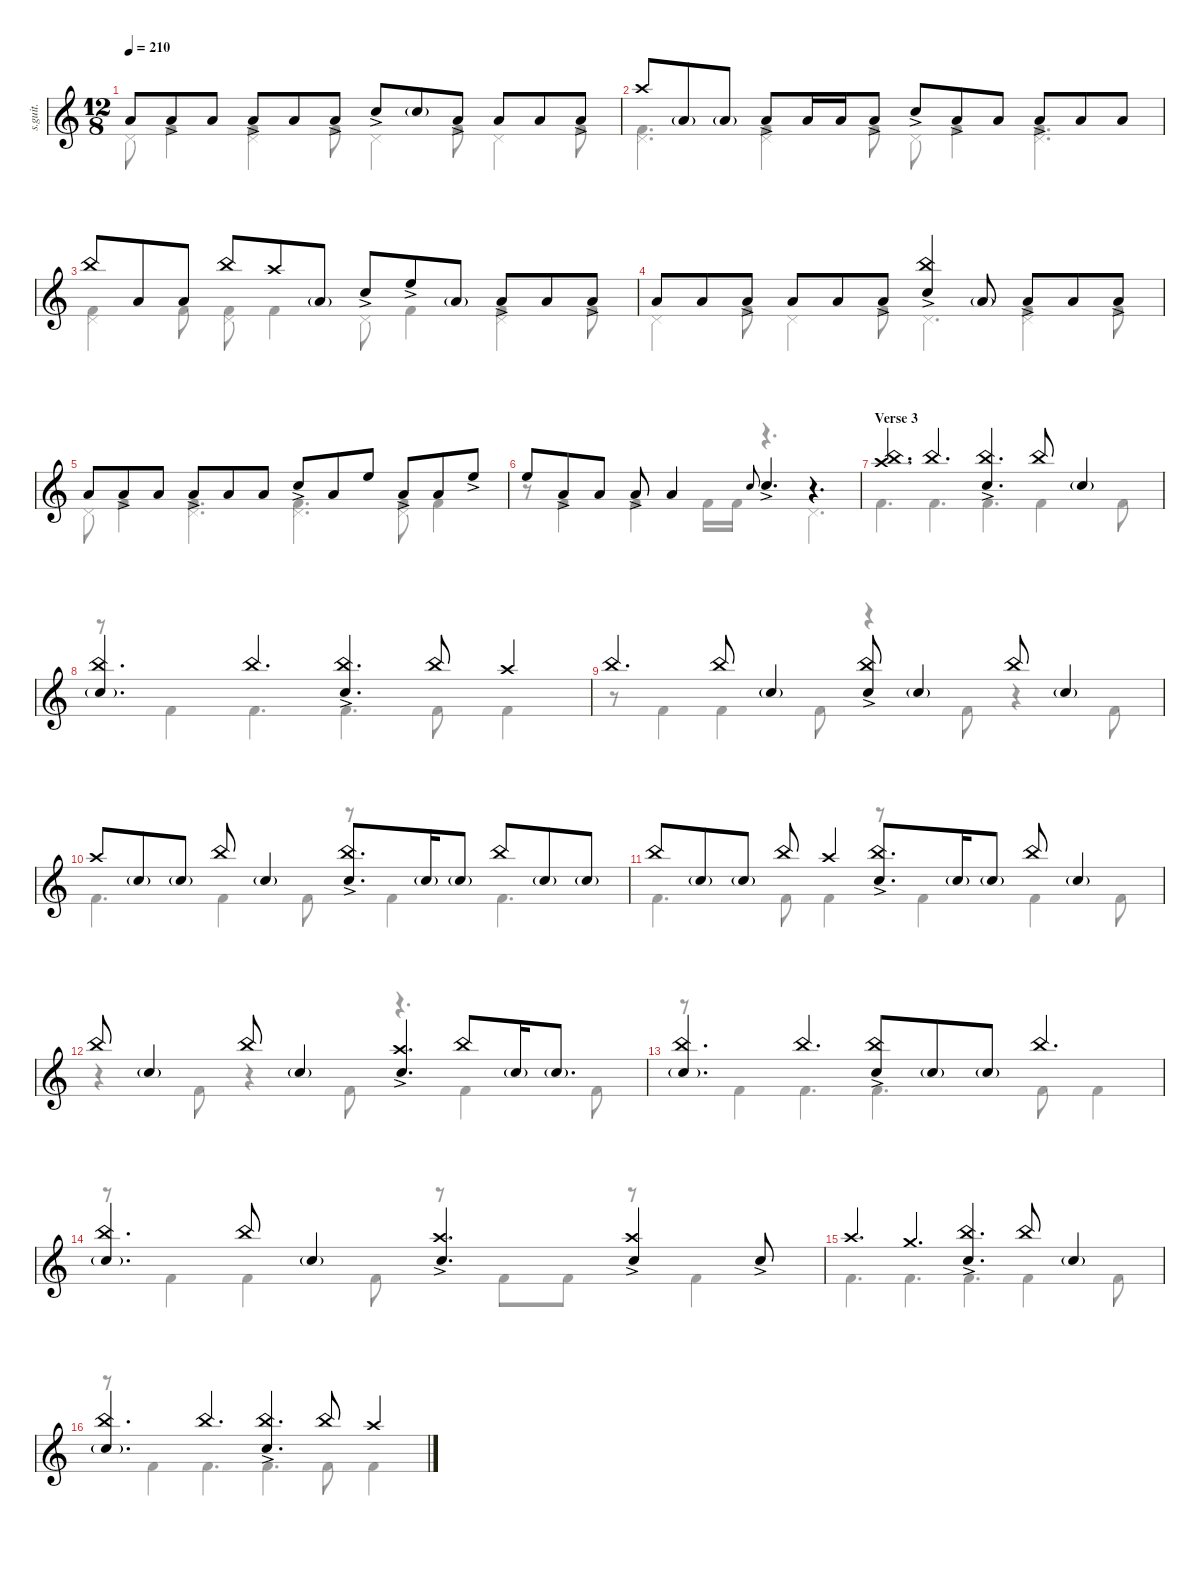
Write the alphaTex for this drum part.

\defaultSystemsLayout 4
\hideDynamics
\bracketExtendMode nobrackets
\track ("Percussion" "s.guit.") {instrument percussion}
\staff {score}
\articulation defaults
\voice
\ts (12 8)
\tempo 210
\clef g2
\ks c "Low Tom (hit)".8{lyrics (0 "") lyrics (1 "") lyrics (2 "") lyrics (3 "") lyrics (4 "") dy f} "Low Tom (hit)"{ac}.8{lyrics (0 "") lyrics (1 "") lyrics (2 "") lyrics (3 "") lyrics (4 "") dy mf} "Low Tom (hit)".8{lyrics (0 "") lyrics (1 "") lyrics (2 "") lyrics (3 "") lyrics (4 "") dy f} "Low Tom (hit)"{ac}.8{lyrics (0 "") lyrics (1 "") lyrics (2 "") lyrics (3 "") lyrics (4 "") dy mf} "Low Tom (hit)".8{lyrics (0 "") lyrics (1 "") lyrics (2 "") lyrics (3 "") lyrics (4 "") dy f} "Low Tom (hit)"{ac}.8{lyrics (0 "") lyrics (1 "") lyrics (2 "") lyrics (3 "") lyrics (4 "") dy mf} "Snare (hit) 2"{ac}.8{lyrics (0 "") lyrics (1 "") lyrics (2 "") lyrics (3 "") lyrics (4 "")} "Snare (hit) 2"{g}.8{lyrics (0 "") lyrics (1 "") lyrics (2 "") lyrics (3 "") lyrics (4 "") dy ff} "Low Tom (hit)"{ac}.8{lyrics (0 "") lyrics (1 "") lyrics (2 "") lyrics (3 "") lyrics (4 "") dy mf} "Low Tom (hit)".8{lyrics (0 "") lyrics (1 "") lyrics (2 "") lyrics (3 "") lyrics (4 "") dy f} "Low Tom (hit)".8{lyrics (0 "") lyrics (1 "") lyrics (2 "") lyrics (3 "") lyrics (4 "")} "Low Tom (hit)"{ac}.8{lyrics (0 "") lyrics (1 "") lyrics (2 "") lyrics (3 "") lyrics (4 "") dy mf}
|
"Crash high (hit)".8{lyrics (0 "") lyrics (1 "") lyrics (2 "") lyrics (3 "") lyrics (4 "") dy f} "Low Tom (hit)"{g}.8{lyrics (0 "") lyrics (1 "") lyrics (2 "") lyrics (3 "") lyrics (4 "") dy ff} "Low Tom (hit)"{g}.8{lyrics (0 "") lyrics (1 "") lyrics (2 "") lyrics (3 "") lyrics (4 "")} "Low Tom (hit)"{ac}.8{lyrics (0 "") lyrics (1 "") lyrics (2 "") lyrics (3 "") lyrics (4 "") dy mf} "Low Tom (hit)".16{lyrics (0 "") lyrics (1 "") lyrics (2 "") lyrics (3 "") lyrics (4 "") dy f} "Low Tom (hit)".16{lyrics (0 "") lyrics (1 "") lyrics (2 "") lyrics (3 "") lyrics (4 "")} "Low Tom (hit)"{ac}.8{lyrics (0 "") lyrics (1 "") lyrics (2 "") lyrics (3 "") lyrics (4 "") dy mf} "Snare (hit) 2"{ac}.8{lyrics (0 "") lyrics (1 "") lyrics (2 "") lyrics (3 "") lyrics (4 "")} "Low Tom (hit)"{ac}.8{lyrics (0 "") lyrics (1 "") lyrics (2 "") lyrics (3 "") lyrics (4 "")} "Low Tom (hit)".8{lyrics (0 "") lyrics (1 "") lyrics (2 "") lyrics (3 "") lyrics (4 "") dy f} "Low Tom (hit)"{ac}.8{lyrics (0 "") lyrics (1 "") lyrics (2 "") lyrics (3 "") lyrics (4 "") dy mf} "Low Tom (hit)".8{lyrics (0 "") lyrics (1 "") lyrics (2 "") lyrics (3 "") lyrics (4 "") dy f} "Low Tom (hit)".8{lyrics (0 "") lyrics (1 "") lyrics (2 "") lyrics (3 "") lyrics (4 "")} |
"China (hit)".8{lyrics (0 "") lyrics (1 "") lyrics (2 "") lyrics (3 "") lyrics (4 "")} "Low Tom (hit)".8{lyrics (0 "") lyrics (1 "") lyrics (2 "") lyrics (3 "") lyrics (4 "")} "Low Tom (hit)".8{lyrics (0 "") lyrics (1 "") lyrics (2 "") lyrics (3 "") lyrics (4 "")} "China (hit)".8{lyrics (0 "") lyrics (1 "") lyrics (2 "") lyrics (3 "") lyrics (4 "")} "Crash high (hit)".8{lyrics (0 "") lyrics (1 "") lyrics (2 "") lyrics (3 "") lyrics (4 "")} "Low Tom (hit)"{g}.8{lyrics (0 "") lyrics (1 "") lyrics (2 "") lyrics (3 "") lyrics (4 "") dy ff} "Snare (hit) 2"{ac}.8{lyrics (0 "") lyrics (1 "") lyrics (2 "") lyrics (3 "") lyrics (4 "") dy mf} "High Floor Tom (hit)"{ac}.8{lyrics (0 "") lyrics (1 "") lyrics (2 "") lyrics (3 "") lyrics (4 "")} "Low Tom (hit)"{g}.8{lyrics (0 "") lyrics (1 "") lyrics (2 "") lyrics (3 "") lyrics (4 "") dy ff} "Low Tom (hit)"{ac}.8{lyrics (0 "") lyrics (1 "") lyrics (2 "") lyrics (3 "") lyrics (4 "") dy mf} "Low Tom (hit)".8{lyrics (0 "") lyrics (1 "") lyrics (2 "") lyrics (3 "") lyrics (4 "") dy f} "Low Tom (hit)"{ac}.8{lyrics (0 "") lyrics (1 "") lyrics (2 "") lyrics (3 "") lyrics (4 "") dy mf} |
"Low Tom (hit)".8{lyrics (0 "") lyrics (1 "") lyrics (2 "") lyrics (3 "") lyrics (4 "") dy f} "Low Tom (hit)".8{lyrics (0 "") lyrics (1 "") lyrics (2 "") lyrics (3 "") lyrics (4 "")} "Low Tom (hit)"{ac}.8{lyrics (0 "") lyrics (1 "") lyrics (2 "") lyrics (3 "") lyrics (4 "") dy mf} "Low Tom (hit)".8{lyrics (0 "") lyrics (1 "") lyrics (2 "") lyrics (3 "") lyrics (4 "") dy f} "Low Tom (hit)".8{lyrics (0 "") lyrics (1 "") lyrics (2 "") lyrics (3 "") lyrics (4 "")} "Low Tom (hit)"{ac}.8{lyrics (0 "") lyrics (1 "") lyrics (2 "") lyrics (3 "") lyrics (4 "") dy mf} ("China (hit)" "Snare (hit) 2"{ac}).4{lyrics (0 "") lyrics (1 "") lyrics (2 "") lyrics (3 "") lyrics (4 "") dy f} "Low Tom (hit)"{g}.8{lyrics (0 "") lyrics (1 "") lyrics (2 "") lyrics (3 "") lyrics (4 "") dy ff} "Low Tom (hit)"{ac}.8{lyrics (0 "") lyrics (1 "") lyrics (2 "") lyrics (3 "") lyrics (4 "") dy mf} "Low Tom (hit)".8{lyrics (0 "") lyrics (1 "") lyrics (2 "") lyrics (3 "") lyrics (4 "") dy f} "Low Tom (hit)"{ac}.8{lyrics (0 "") lyrics (1 "") lyrics (2 "") lyrics (3 "") lyrics (4 "") dy mf} |
"Low Tom (hit)".8{lyrics (0 "") lyrics (1 "") lyrics (2 "") lyrics (3 "") lyrics (4 "") dy f} "Low Tom (hit)"{ac}.8{lyrics (0 "") lyrics (1 "") lyrics (2 "") lyrics (3 "") lyrics (4 "") dy mf} "Low Tom (hit)".8{lyrics (0 "") lyrics (1 "") lyrics (2 "") lyrics (3 "") lyrics (4 "") dy f} "Low Tom (hit)"{ac}.8{lyrics (0 "") lyrics (1 "") lyrics (2 "") lyrics (3 "") lyrics (4 "") dy mf} "Low Tom (hit)".8{lyrics (0 "") lyrics (1 "") lyrics (2 "") lyrics (3 "") lyrics (4 "") dy f} "Low Tom (hit)".8{lyrics (0 "") lyrics (1 "") lyrics (2 "") lyrics (3 "") lyrics (4 "")} "Snare (hit) 2"{ac}.8{lyrics (0 "") lyrics (1 "") lyrics (2 "") lyrics (3 "") lyrics (4 "") dy mf} "Low Tom (hit)".8{lyrics (0 "") lyrics (1 "") lyrics (2 "") lyrics (3 "") lyrics (4 "") dy f} "High Floor Tom (hit)".8{lyrics (0 "") lyrics (1 "") lyrics (2 "") lyrics (3 "") lyrics (4 "")} "Low Tom (hit)"{ac}.8{lyrics (0 "") lyrics (1 "") lyrics (2 "") lyrics (3 "") lyrics (4 "") dy mf} "Low Tom (hit)".8{lyrics (0 "") lyrics (1 "") lyrics (2 "") lyrics (3 "") lyrics (4 "") dy f} "High Floor Tom (hit)"{ac}.8{lyrics (0 "") lyrics (1 "") lyrics (2 "") lyrics (3 "") lyrics (4 "") dy mf} |
"High Floor Tom (hit)".8{lyrics (0 "") lyrics (1 "") lyrics (2 "") lyrics (3 "") lyrics (4 "") dy f} "Low Tom (hit)"{ac}.8{lyrics (0 "") lyrics (1 "") lyrics (2 "") lyrics (3 "") lyrics (4 "") dy mf} "Low Tom (hit)".8{lyrics (0 "") lyrics (1 "") lyrics (2 "") lyrics (3 "") lyrics (4 "") dy f} "Low Tom (hit)"{ac}.8{lyrics (0 "") lyrics (1 "") lyrics (2 "") lyrics (3 "") lyrics (4 "") dy mf} "Low Tom (hit)".4{lyrics (0 "") lyrics (1 "") lyrics (2 "") lyrics (3 "") lyrics (4 "") dy f} "Snare (hit) 2".8{lyrics (0 "") lyrics (1 "") lyrics (2 "") lyrics (3 "") lyrics (4 "") gr onbeat dy mf} "Snare (hit) 2"{ac}.4{d lyrics (0 "") lyrics (1 "") lyrics (2 "") lyrics (3 "") lyrics (4 "")} r.4{d} |
\section ("" "Verse 3")
("China (hit)" "Crash high (hit)").4{d lyrics (0 "") lyrics (1 "") lyrics (2 "") lyrics (3 "") lyrics (4 "") dy f} "China (hit)".4{d lyrics (0 "") lyrics (1 "") lyrics (2 "") lyrics (3 "") lyrics (4 "")} ("China (hit)" "Snare (hit) 2"{ac}).4{d lyrics (0 "") lyrics (1 "") lyrics (2 "") lyrics (3 "") lyrics (4 "")} "China (hit)".8{lyrics (0 "") lyrics (1 "") lyrics (2 "") lyrics (3 "") lyrics (4 "")} "Snare (hit) 2"{g}.4{lyrics (0 "") lyrics (1 "") lyrics (2 "") lyrics (3 "") lyrics (4 "") dy ff} |
("China (hit)" "Snare (hit) 2"{g}).4{d lyrics (0 "") lyrics (1 "") lyrics (2 "") lyrics (3 "") lyrics (4 "") dy f} "China (hit)".4{d lyrics (0 "") lyrics (1 "") lyrics (2 "") lyrics (3 "") lyrics (4 "")} ("China (hit)" "Snare (hit) 2"{ac}).4{d lyrics (0 "") lyrics (1 "") lyrics (2 "") lyrics (3 "") lyrics (4 "")} "China (hit)".8{lyrics (0 "") lyrics (1 "") lyrics (2 "") lyrics (3 "") lyrics (4 "")} "Crash high (hit)".4{lyrics (0 "") lyrics (1 "") lyrics (2 "") lyrics (3 "") lyrics (4 "")} |
"China (hit)".4{d lyrics (0 "") lyrics (1 "") lyrics (2 "") lyrics (3 "") lyrics (4 "")} "China (hit)".8{lyrics (0 "") lyrics (1 "") lyrics (2 "") lyrics (3 "") lyrics (4 "")} "Snare (hit) 2"{g}.4{lyrics (0 "") lyrics (1 "") lyrics (2 "") lyrics (3 "") lyrics (4 "") dy ff} ("Snare (hit) 2"{ac} "China (hit)").8{lyrics (0 "") lyrics (1 "") lyrics (2 "") lyrics (3 "") lyrics (4 "") dy f} "Snare (hit) 2"{g}.4{lyrics (0 "") lyrics (1 "") lyrics (2 "") lyrics (3 "") lyrics (4 "") dy ff} "China (hit)".8{lyrics (0 "") lyrics (1 "") lyrics (2 "") lyrics (3 "") lyrics (4 "") dy f} "Snare (hit) 2"{g}.4{lyrics (0 "") lyrics (1 "") lyrics (2 "") lyrics (3 "") lyrics (4 "") dy ff} |
"Crash high (hit)".8{lyrics (0 "") lyrics (1 "") lyrics (2 "") lyrics (3 "") lyrics (4 "") dy f} "Snare (hit) 2"{g}.8{lyrics (0 "") lyrics (1 "") lyrics (2 "") lyrics (3 "") lyrics (4 "") dy ff} "Snare (hit) 2"{g}.8{lyrics (0 "") lyrics (1 "") lyrics (2 "") lyrics (3 "") lyrics (4 "")} "China (hit)".8{lyrics (0 "") lyrics (1 "") lyrics (2 "") lyrics (3 "") lyrics (4 "") dy f} "Snare (hit) 2"{g}.4{lyrics (0 "") lyrics (1 "") lyrics (2 "") lyrics (3 "") lyrics (4 "") dy ff} ("China (hit)" "Snare (hit) 2"{ac}).8{d lyrics (0 "") lyrics (1 "") lyrics (2 "") lyrics (3 "") lyrics (4 "") dy f} "Snare (hit) 2"{g}.16{lyrics (0 "") lyrics (1 "") lyrics (2 "") lyrics (3 "") lyrics (4 "") dy ff} "Snare (hit) 2"{g}.8{lyrics (0 "") lyrics (1 "") lyrics (2 "") lyrics (3 "") lyrics (4 "")} "China (hit)".8{lyrics (0 "") lyrics (1 "") lyrics (2 "") lyrics (3 "") lyrics (4 "") dy f} "Snare (hit) 2"{g}.8{lyrics (0 "") lyrics (1 "") lyrics (2 "") lyrics (3 "") lyrics (4 "") dy ff} "Snare (hit) 2"{g}.8{lyrics (0 "") lyrics (1 "") lyrics (2 "") lyrics (3 "") lyrics (4 "")} |
"China (hit)".8{lyrics (0 "") lyrics (1 "") lyrics (2 "") lyrics (3 "") lyrics (4 "") dy f} "Snare (hit) 2"{g}.8{lyrics (0 "") lyrics (1 "") lyrics (2 "") lyrics (3 "") lyrics (4 "") dy ff} "Snare (hit) 2"{g}.8{lyrics (0 "") lyrics (1 "") lyrics (2 "") lyrics (3 "") lyrics (4 "")} "China (hit)".8{lyrics (0 "") lyrics (1 "") lyrics (2 "") lyrics (3 "") lyrics (4 "") dy f} "Crash high (hit)".4{lyrics (0 "") lyrics (1 "") lyrics (2 "") lyrics (3 "") lyrics (4 "")} ("China (hit)" "Snare (hit) 2"{ac}).8{d lyrics (0 "") lyrics (1 "") lyrics (2 "") lyrics (3 "") lyrics (4 "")} "Snare (hit) 2"{g}.16{lyrics (0 "") lyrics (1 "") lyrics (2 "") lyrics (3 "") lyrics (4 "") dy ff} "Snare (hit) 2"{g}.8{lyrics (0 "") lyrics (1 "") lyrics (2 "") lyrics (3 "") lyrics (4 "")} "China (hit)".8{lyrics (0 "") lyrics (1 "") lyrics (2 "") lyrics (3 "") lyrics (4 "") dy f} "Snare (hit) 2"{g}.4{lyrics (0 "") lyrics (1 "") lyrics (2 "") lyrics (3 "") lyrics (4 "") dy ff} |
"China (hit)".8{lyrics (0 "") lyrics (1 "") lyrics (2 "") lyrics (3 "") lyrics (4 "") dy f} "Snare (hit) 2"{g}.4{lyrics (0 "") lyrics (1 "") lyrics (2 "") lyrics (3 "") lyrics (4 "") dy ff} "China (hit)".8{lyrics (0 "") lyrics (1 "") lyrics (2 "") lyrics (3 "") lyrics (4 "") dy f} "Snare (hit) 2"{g}.4{lyrics (0 "") lyrics (1 "") lyrics (2 "") lyrics (3 "") lyrics (4 "") dy ff} ("Snare (hit) 2"{ac} "Crash high (hit)").4{d lyrics (0 "") lyrics (1 "") lyrics (2 "") lyrics (3 "") lyrics (4 "") dy f} "China (hit)".8{lyrics (0 "") lyrics (1 "") lyrics (2 "") lyrics (3 "") lyrics (4 "")} "Snare (hit) 2"{g}.16{lyrics (0 "") lyrics (1 "") lyrics (2 "") lyrics (3 "") lyrics (4 "") dy ff} "Snare (hit) 2"{g}.8{d lyrics (0 "") lyrics (1 "") lyrics (2 "") lyrics (3 "") lyrics (4 "")} |
("Snare (hit) 2"{g} "China (hit)").4{d lyrics (0 "") lyrics (1 "") lyrics (2 "") lyrics (3 "") lyrics (4 "") dy f} "China (hit)".4{d lyrics (0 "") lyrics (1 "") lyrics (2 "") lyrics (3 "") lyrics (4 "")} ("Snare (hit) 2"{ac} "China (hit)").8{lyrics (0 "") lyrics (1 "") lyrics (2 "") lyrics (3 "") lyrics (4 "")} "Snare (hit) 2"{g}.8{lyrics (0 "") lyrics (1 "") lyrics (2 "") lyrics (3 "") lyrics (4 "") dy ff} "Snare (hit) 2"{g}.8{lyrics (0 "") lyrics (1 "") lyrics (2 "") lyrics (3 "") lyrics (4 "")} "China (hit)".4{d lyrics (0 "") lyrics (1 "") lyrics (2 "") lyrics (3 "") lyrics (4 "") dy f} |
("Snare (hit) 2"{g} "China (hit)").4{d lyrics (0 "") lyrics (1 "") lyrics (2 "") lyrics (3 "") lyrics (4 "")} "China (hit)".8{lyrics (0 "") lyrics (1 "") lyrics (2 "") lyrics (3 "") lyrics (4 "")} "Snare (hit) 2"{g}.4{lyrics (0 "") lyrics (1 "") lyrics (2 "") lyrics (3 "") lyrics (4 "") dy ff} ("Snare (hit) 2"{ac} "Crash high (hit)").4{d lyrics (0 "") lyrics (1 "") lyrics (2 "") lyrics (3 "") lyrics (4 "") dy f} ("Snare (hit) 2"{ac} "Crash high (hit)").4{lyrics (0 "") lyrics (1 "") lyrics (2 "") lyrics (3 "") lyrics (4 "")} "Snare (hit) 2"{ac}.8{lyrics (0 "") lyrics (1 "") lyrics (2 "") lyrics (3 "") lyrics (4 "") dy mf} |
"Crash high (hit)".4{d lyrics (0 "") lyrics (1 "") lyrics (2 "") lyrics (3 "") lyrics (4 "") dy f} "Crash medium (hit)".4{d lyrics (0 "") lyrics (1 "") lyrics (2 "") lyrics (3 "") lyrics (4 "")} ("China (hit)" "Snare (hit) 2"{ac}).4{d lyrics (0 "") lyrics (1 "") lyrics (2 "") lyrics (3 "") lyrics (4 "")} "China (hit)".8{lyrics (0 "") lyrics (1 "") lyrics (2 "") lyrics (3 "") lyrics (4 "")} "Snare (hit) 2"{g}.4{lyrics (0 "") lyrics (1 "") lyrics (2 "") lyrics (3 "") lyrics (4 "") dy ff} |
("China (hit)" "Snare (hit) 2"{g}).4{d lyrics (0 "") lyrics (1 "") lyrics (2 "") lyrics (3 "") lyrics (4 "") dy f} "China (hit)".4{d lyrics (0 "") lyrics (1 "") lyrics (2 "") lyrics (3 "") lyrics (4 "")} ("China (hit)" "Snare (hit) 2"{ac}).4{d lyrics (0 "") lyrics (1 "") lyrics (2 "") lyrics (3 "") lyrics (4 "")} "China (hit)".8{lyrics (0 "") lyrics (1 "") lyrics (2 "") lyrics (3 "") lyrics (4 "")} "Crash high (hit)".4{lyrics (0 "") lyrics (1 "") lyrics (2 "") lyrics (3 "") lyrics (4 "")}
\voice
\clef g2
\ottava regular
\simile none
\ks c "Pedal Hi-Hat (hit)".8{lyrics (0 "") lyrics (1 "") lyrics (2 "") lyrics (3 "") lyrics (4 "") dy f} "Kick (hit) 2".4{lyrics (0 "") lyrics (1 "") lyrics (2 "") lyrics (3 "") lyrics (4 "")}
("Kick (hit) 2" "Pedal Hi-Hat (hit)").4{lyrics (0 "") lyrics (1 "") lyrics (2 "") lyrics (3 "") lyrics (4 "")} "Kick (hit) 2".8{lyrics (0 "") lyrics (1 "") lyrics (2 "") lyrics (3 "") lyrics (4 "")} "Pedal Hi-Hat (hit)".4{lyrics (0 "") lyrics (1 "") lyrics (2 "") lyrics (3 "") lyrics (4 "")} "Kick (hit) 2".8{lyrics (0 "") lyrics (1 "") lyrics (2 "") lyrics (3 "") lyrics (4 "")} "Pedal Hi-Hat (hit)".4{lyrics (0 "") lyrics (1 "") lyrics (2 "") lyrics (3 "") lyrics (4 "")} "Kick (hit) 2".8{lyrics (0 "") lyrics (1 "") lyrics (2 "") lyrics (3 "") lyrics (4 "")} |
("Kick (hit) 2" "Pedal Hi-Hat (hit)").4{d lyrics (0 "") lyrics (1 "") lyrics (2 "") lyrics (3 "") lyrics (4 "")} ("Kick (hit) 2" "Pedal Hi-Hat (hit)").4{lyrics (0 "") lyrics (1 "") lyrics (2 "") lyrics (3 "") lyrics (4 "")} "Kick (hit) 2".8{lyrics (0 "") lyrics (1 "") lyrics (2 "") lyrics (3 "") lyrics (4 "")} "Pedal Hi-Hat (hit)".8{lyrics (0 "") lyrics (1 "") lyrics (2 "") lyrics (3 "") lyrics (4 "")} "Kick (hit) 2".4{lyrics (0 "") lyrics (1 "") lyrics (2 "") lyrics (3 "") lyrics (4 "")} ("Kick (hit) 2" "Pedal Hi-Hat (hit)").4{d lyrics (0 "") lyrics (1 "") lyrics (2 "") lyrics (3 "") lyrics (4 "")} |
("Kick (hit) 2" "Pedal Hi-Hat (hit)").4{lyrics (0 "") lyrics (1 "") lyrics (2 "") lyrics (3 "") lyrics (4 "")} "Kick (hit) 2".8{lyrics (0 "") lyrics (1 "") lyrics (2 "") lyrics (3 "") lyrics (4 "")} ("Kick (hit) 2" "Pedal Hi-Hat (hit)").8{lyrics (0 "") lyrics (1 "") lyrics (2 "") lyrics (3 "") lyrics (4 "")} "Kick (hit) 2".4{lyrics (0 "") lyrics (1 "") lyrics (2 "") lyrics (3 "") lyrics (4 "")} "Pedal Hi-Hat (hit)".8{lyrics (0 "") lyrics (1 "") lyrics (2 "") lyrics (3 "") lyrics (4 "")} "Kick (hit) 2".4{lyrics (0 "") lyrics (1 "") lyrics (2 "") lyrics (3 "") lyrics (4 "")} ("Kick (hit) 2" "Pedal Hi-Hat (hit)").4{lyrics (0 "") lyrics (1 "") lyrics (2 "") lyrics (3 "") lyrics (4 "")} "Kick (hit) 2".8{lyrics (0 "") lyrics (1 "") lyrics (2 "") lyrics (3 "") lyrics (4 "")} |
"Pedal Hi-Hat (hit)".4{lyrics (0 "") lyrics (1 "") lyrics (2 "") lyrics (3 "") lyrics (4 "")} "Kick (hit) 2".8{lyrics (0 "") lyrics (1 "") lyrics (2 "") lyrics (3 "") lyrics (4 "")} "Pedal Hi-Hat (hit)".4{lyrics (0 "") lyrics (1 "") lyrics (2 "") lyrics (3 "") lyrics (4 "")} "Kick (hit) 2".8{lyrics (0 "") lyrics (1 "") lyrics (2 "") lyrics (3 "") lyrics (4 "")} "Pedal Hi-Hat (hit)".4{d lyrics (0 "") lyrics (1 "") lyrics (2 "") lyrics (3 "") lyrics (4 "")} ("Kick (hit) 2" "Pedal Hi-Hat (hit)").4{lyrics (0 "") lyrics (1 "") lyrics (2 "") lyrics (3 "") lyrics (4 "")} "Kick (hit) 2".8{lyrics (0 "") lyrics (1 "") lyrics (2 "") lyrics (3 "") lyrics (4 "")} |
"Pedal Hi-Hat (hit)".8{lyrics (0 "") lyrics (1 "") lyrics (2 "") lyrics (3 "") lyrics (4 "")} "Kick (hit) 2".4{lyrics (0 "") lyrics (1 "") lyrics (2 "") lyrics (3 "") lyrics (4 "")} ("Kick (hit) 2" "Pedal Hi-Hat (hit)").4{d lyrics (0 "") lyrics (1 "") lyrics (2 "") lyrics (3 "") lyrics (4 "")} ("Pedal Hi-Hat (hit)" "Kick (hit) 2").4{d lyrics (0 "") lyrics (1 "") lyrics (2 "") lyrics (3 "") lyrics (4 "")} ("Pedal Hi-Hat (hit)" "Kick (hit) 2").8{lyrics (0 "") lyrics (1 "") lyrics (2 "") lyrics (3 "") lyrics (4 "")} "Kick (hit) 2".4{lyrics (0 "") lyrics (1 "") lyrics (2 "") lyrics (3 "") lyrics (4 "")} |
r.8 "Kick (hit) 2".4{lyrics (0 "") lyrics (1 "") lyrics (2 "") lyrics (3 "") lyrics (4 "")} "Kick (hit) 2".4{lyrics (0 "") lyrics (1 "") lyrics (2 "") lyrics (3 "") lyrics (4 "")} "Kick (hit) 2".16{lyrics (0 "") lyrics (1 "") lyrics (2 "") lyrics (3 "") lyrics (4 "")} "Kick (hit) 2".16{lyrics (0 "") lyrics (1 "") lyrics (2 "") lyrics (3 "") lyrics (4 "")} r.4{d} "Pedal Hi-Hat (hit)".4{d lyrics (0 "") lyrics (1 "") lyrics (2 "") lyrics (3 "") lyrics (4 "")} |
"Kick (hit) 2".4{d lyrics (0 "") lyrics (1 "") lyrics (2 "") lyrics (3 "") lyrics (4 "")} "Kick (hit) 2".4{d lyrics (0 "") lyrics (1 "") lyrics (2 "") lyrics (3 "") lyrics (4 "")} "Kick (hit) 2".4{d lyrics (0 "") lyrics (1 "") lyrics (2 "") lyrics (3 "") lyrics (4 "")} "Kick (hit) 2".4{lyrics (0 "") lyrics (1 "") lyrics (2 "") lyrics (3 "") lyrics (4 "")} "Kick (hit) 2".8{lyrics (0 "") lyrics (1 "") lyrics (2 "") lyrics (3 "") lyrics (4 "")} |
r.8 "Kick (hit) 2".4{lyrics (0 "") lyrics (1 "") lyrics (2 "") lyrics (3 "") lyrics (4 "")} "Kick (hit) 2".4{d lyrics (0 "") lyrics (1 "") lyrics (2 "") lyrics (3 "") lyrics (4 "")} "Kick (hit) 2".4{d lyrics (0 "") lyrics (1 "") lyrics (2 "") lyrics (3 "") lyrics (4 "")} "Kick (hit) 2".8{lyrics (0 "") lyrics (1 "") lyrics (2 "") lyrics (3 "") lyrics (4 "")} "Kick (hit) 2".4{lyrics (0 "") lyrics (1 "") lyrics (2 "") lyrics (3 "") lyrics (4 "")} |
r.8 "Kick (hit) 2".4{lyrics (0 "") lyrics (1 "") lyrics (2 "") lyrics (3 "") lyrics (4 "")} "Kick (hit) 2".4{lyrics (0 "") lyrics (1 "") lyrics (2 "") lyrics (3 "") lyrics (4 "")} "Kick (hit) 2".8{lyrics (0 "") lyrics (1 "") lyrics (2 "") lyrics (3 "") lyrics (4 "")} r.4 "Kick (hit) 2".8{lyrics (0 "") lyrics (1 "") lyrics (2 "") lyrics (3 "") lyrics (4 "")} r.4 "Kick (hit) 2".8{lyrics (0 "") lyrics (1 "") lyrics (2 "") lyrics (3 "") lyrics (4 "")} |
"Kick (hit) 2".4{d lyrics (0 "") lyrics (1 "") lyrics (2 "") lyrics (3 "") lyrics (4 "")} "Kick (hit) 2".4{lyrics (0 "") lyrics (1 "") lyrics (2 "") lyrics (3 "") lyrics (4 "")} "Kick (hit) 2".8{lyrics (0 "") lyrics (1 "") lyrics (2 "") lyrics (3 "") lyrics (4 "")} r.8 "Kick (hit) 2".4{lyrics (0 "") lyrics (1 "") lyrics (2 "") lyrics (3 "") lyrics (4 "")} "Kick (hit) 2".4{d lyrics (0 "") lyrics (1 "") lyrics (2 "") lyrics (3 "") lyrics (4 "")} |
"Kick (hit) 2".4{d lyrics (0 "") lyrics (1 "") lyrics (2 "") lyrics (3 "") lyrics (4 "")} "Kick (hit) 2".8{lyrics (0 "") lyrics (1 "") lyrics (2 "") lyrics (3 "") lyrics (4 "")} "Kick (hit) 2".4{lyrics (0 "") lyrics (1 "") lyrics (2 "") lyrics (3 "") lyrics (4 "")} r.8 "Kick (hit) 2".4{lyrics (0 "") lyrics (1 "") lyrics (2 "") lyrics (3 "") lyrics (4 "")} "Kick (hit) 2".4{lyrics (0 "") lyrics (1 "") lyrics (2 "") lyrics (3 "") lyrics (4 "")} "Kick (hit) 2".8{lyrics (0 "") lyrics (1 "") lyrics (2 "") lyrics (3 "") lyrics (4 "")} |
r.4 "Kick (hit) 2".8{lyrics (0 "") lyrics (1 "") lyrics (2 "") lyrics (3 "") lyrics (4 "")} r.4 "Kick (hit) 2".8{lyrics (0 "") lyrics (1 "") lyrics (2 "") lyrics (3 "") lyrics (4 "")} r.4{d} "Kick (hit) 2".4{lyrics (0 "") lyrics (1 "") lyrics (2 "") lyrics (3 "") lyrics (4 "")} "Kick (hit) 2".8{lyrics (0 "") lyrics (1 "") lyrics (2 "") lyrics (3 "") lyrics (4 "")} |
r.8 "Kick (hit) 2".4{lyrics (0 "") lyrics (1 "") lyrics (2 "") lyrics (3 "") lyrics (4 "")} "Kick (hit) 2".4{d lyrics (0 "") lyrics (1 "") lyrics (2 "") lyrics (3 "") lyrics (4 "")} "Kick (hit) 2".4{d lyrics (0 "") lyrics (1 "") lyrics (2 "") lyrics (3 "") lyrics (4 "")} "Kick (hit) 2".8{lyrics (0 "") lyrics (1 "") lyrics (2 "") lyrics (3 "") lyrics (4 "")} "Kick (hit) 2".4{lyrics (0 "") lyrics (1 "") lyrics (2 "") lyrics (3 "") lyrics (4 "")} |
r.8 "Kick (hit) 2".4{lyrics (0 "") lyrics (1 "") lyrics (2 "") lyrics (3 "") lyrics (4 "")} "Kick (hit) 2".4{lyrics (0 "") lyrics (1 "") lyrics (2 "") lyrics (3 "") lyrics (4 "")} "Kick (hit) 2".8{lyrics (0 "") lyrics (1 "") lyrics (2 "") lyrics (3 "") lyrics (4 "")} r.8 "Kick (hit) 2".8{lyrics (0 "") lyrics (1 "") lyrics (2 "") lyrics (3 "") lyrics (4 "")} "Kick (hit) 2".8{lyrics (0 "") lyrics (1 "") lyrics (2 "") lyrics (3 "") lyrics (4 "")} r.8 "Kick (hit) 2".4{lyrics (0 "") lyrics (1 "") lyrics (2 "") lyrics (3 "") lyrics (4 "")} |
"Kick (hit) 2".4{d lyrics (0 "") lyrics (1 "") lyrics (2 "") lyrics (3 "") lyrics (4 "")} "Kick (hit) 2".4{d lyrics (0 "") lyrics (1 "") lyrics (2 "") lyrics (3 "") lyrics (4 "")} "Kick (hit) 2".4{d lyrics (0 "") lyrics (1 "") lyrics (2 "") lyrics (3 "") lyrics (4 "")} "Kick (hit) 2".4{lyrics (0 "") lyrics (1 "") lyrics (2 "") lyrics (3 "") lyrics (4 "")} "Kick (hit) 2".8{lyrics (0 "") lyrics (1 "") lyrics (2 "") lyrics (3 "") lyrics (4 "")} |
r.8 "Kick (hit) 2".4{lyrics (0 "") lyrics (1 "") lyrics (2 "") lyrics (3 "") lyrics (4 "")} "Kick (hit) 2".4{d lyrics (0 "") lyrics (1 "") lyrics (2 "") lyrics (3 "") lyrics (4 "")} "Kick (hit) 2".4{d lyrics (0 "") lyrics (1 "") lyrics (2 "") lyrics (3 "") lyrics (4 "")} "Kick (hit) 2".8{lyrics (0 "") lyrics (1 "") lyrics (2 "") lyrics (3 "") lyrics (4 "")} "Kick (hit) 2".4{lyrics (0 "") lyrics (1 "") lyrics (2 "") lyrics (3 "") lyrics (4 "")}
